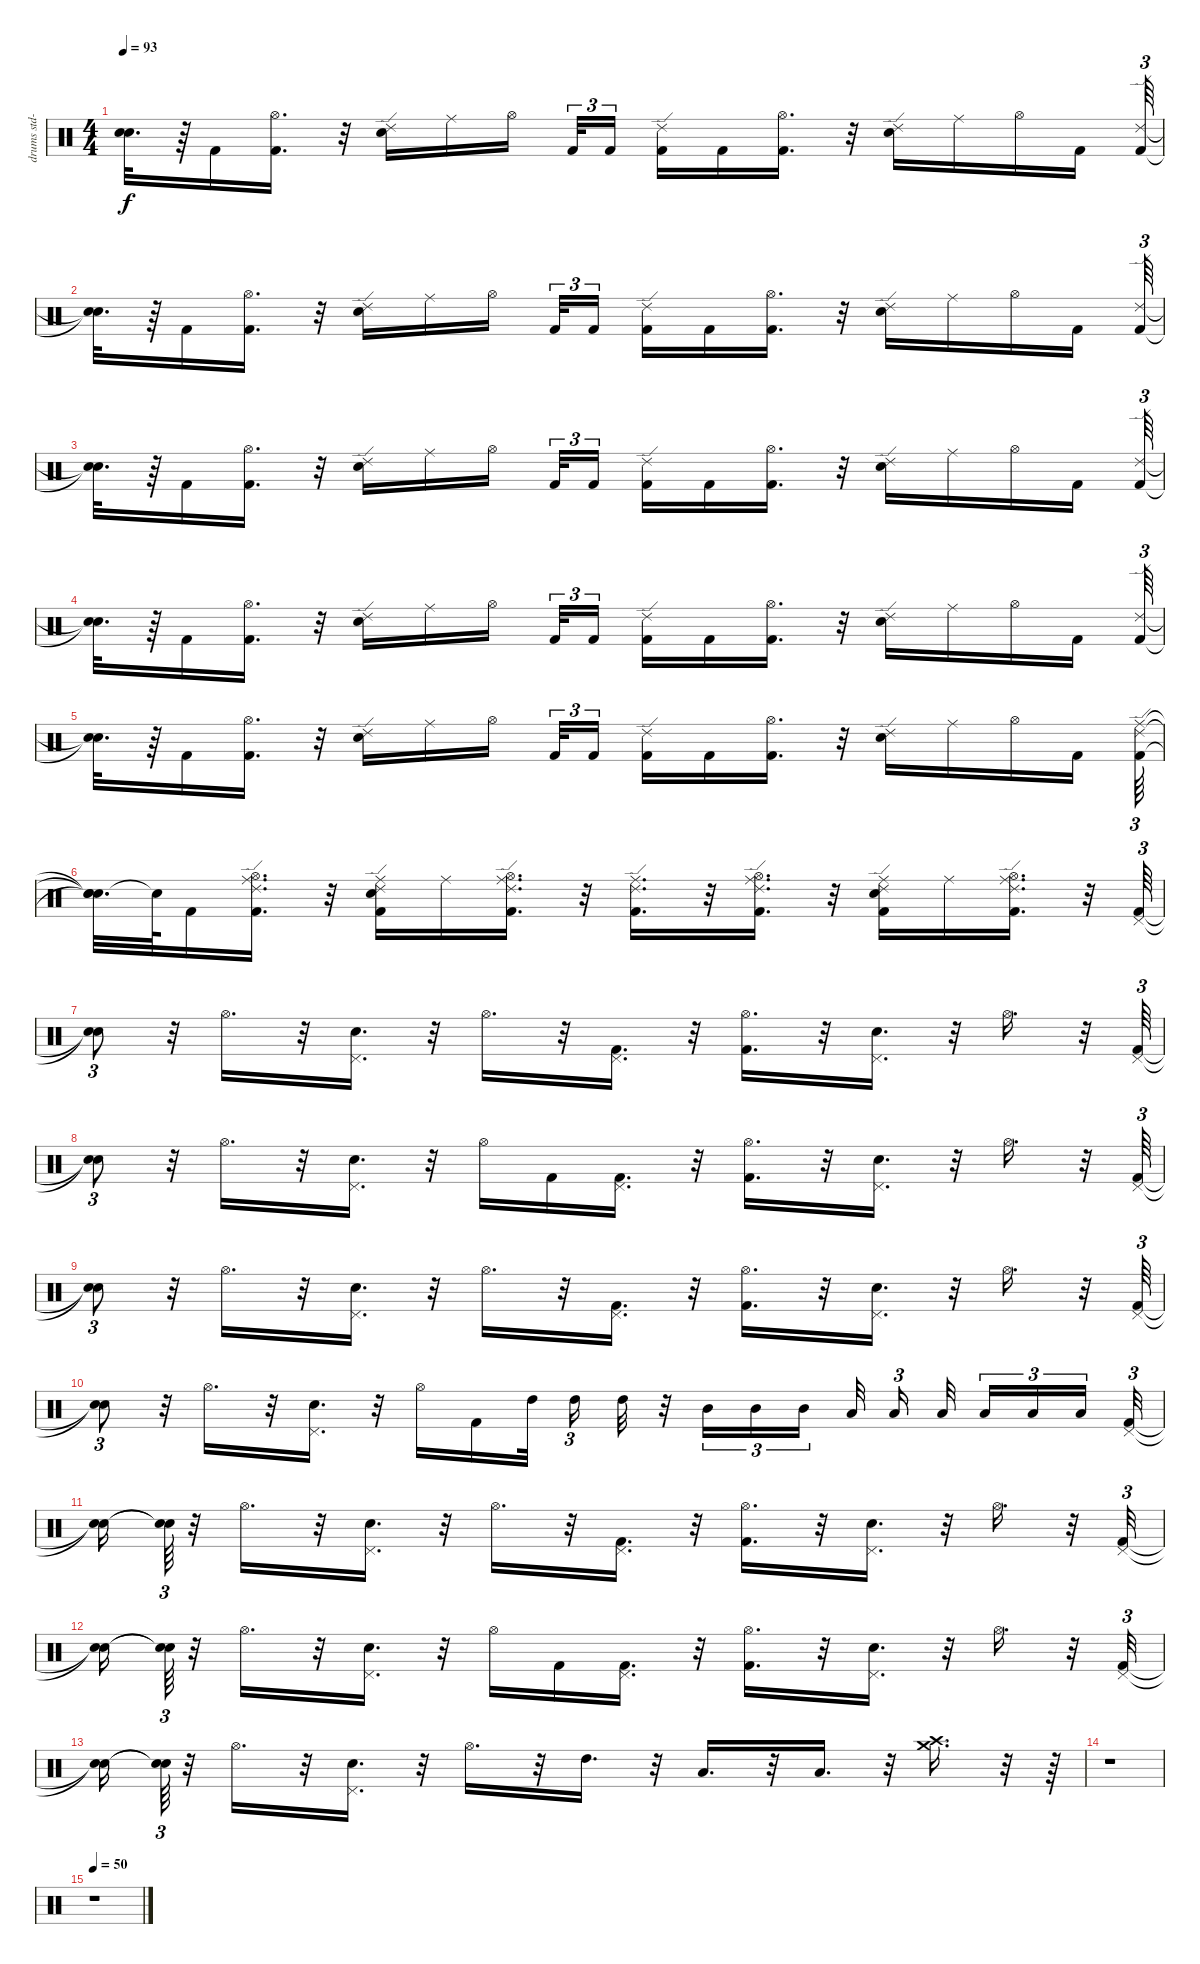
\track ("drums std-0" "drums std-") {instrument percussion}
\staff {score}
\articulation defaults
\ts (4 4)
\tempo 93
\clef neutral
\ks c
("Snare (hit)"{t} "Snare (hit)"{t}).32{d dy f} r.64 "Kick (hit) 2".16 ("Kick (hit) 2" "Hi-Hat (open)").16{d} r.32 ("Ride (edge) 2" "Snare (hit) 2").16 "Ride (middle)".16 "Hi-Hat (open)".16 "Kick (hit) 2".32{tu (3 2)} "Kick (hit) 2".16{tu (3 2)} ("Ride (edge) 2" "Kick (hit) 2").16 "Kick (hit) 2".16 ("Hi-Hat (open)" "Kick (hit) 2").16{d} r.32 ("Ride (edge) 2" "Snare (hit) 2").16 "Ride (middle)".16 "Hi-Hat (open)".16 "Kick (hit) 2".16 ("Kick (hit) 2" "Ride (edge) 2").64{tu (3 2)} |
("Snare (hit)"{t} "Snare (hit)"{t}).32{d} r.64 "Kick (hit) 2".16 ("Kick (hit) 2" "Hi-Hat (open)").16{d} r.32 ("Ride (edge) 2" "Snare (hit) 2").16 "Ride (middle)".16 "Hi-Hat (open)".16 "Kick (hit) 2".32{tu (3 2)} "Kick (hit) 2".16{tu (3 2)} ("Ride (edge) 2" "Kick (hit) 2").16 "Kick (hit) 2".16 ("Hi-Hat (open)" "Kick (hit) 2").16{d} r.32 ("Ride (edge) 2" "Snare (hit) 2").16 "Ride (middle)".16 "Hi-Hat (open)".16 "Kick (hit) 2".16 ("Kick (hit) 2" "Ride (edge) 2").64{tu (3 2)} |
("Snare (hit)"{t} "Snare (hit)"{t}).32{d} r.64 "Kick (hit) 2".16 ("Kick (hit) 2" "Hi-Hat (open)").16{d} r.32 ("Ride (edge) 2" "Snare (hit) 2").16 "Ride (middle)".16 "Hi-Hat (open)".16 "Kick (hit) 2".32{tu (3 2)} "Kick (hit) 2".16{tu (3 2)} ("Ride (edge) 2" "Kick (hit) 2").16 "Kick (hit) 2".16 ("Hi-Hat (open)" "Kick (hit) 2").16{d} r.32 ("Ride (edge) 2" "Snare (hit) 2").16 "Ride (middle)".16 "Hi-Hat (open)".16 "Kick (hit) 2".16 ("Kick (hit) 2" "Ride (edge) 2").64{tu (3 2)} |
("Snare (hit)"{t} "Snare (hit)"{t}).32{d} r.64 "Kick (hit) 2".16 ("Kick (hit) 2" "Hi-Hat (open)").16{d} r.32 ("Ride (edge) 2" "Snare (hit) 2").16 "Ride (middle)".16 "Hi-Hat (open)".16 "Kick (hit) 2".32{tu (3 2)} "Kick (hit) 2".16{tu (3 2)} ("Ride (edge) 2" "Kick (hit) 2").16 "Kick (hit) 2".16 ("Hi-Hat (open)" "Kick (hit) 2").16{d} r.32 ("Ride (edge) 2" "Snare (hit) 2").16 "Ride (middle)".16 "Hi-Hat (open)".16 "Kick (hit) 2".16 ("Kick (hit) 2" "Ride (edge) 2").64{tu (3 2)} |
("Snare (hit)"{t} "Snare (hit)"{t}).32{d} r.64 "Kick (hit) 2".16 ("Kick (hit) 2" "Hi-Hat (open)").16{d} r.32 ("Ride (edge) 2" "Snare (hit) 2").16 "Ride (middle)".16 "Hi-Hat (open)".16 "Kick (hit) 2".32{tu (3 2)} "Kick (hit) 2".16{tu (3 2)} ("Ride (edge) 2" "Kick (hit) 2").16 "Kick (hit) 2".16 ("Hi-Hat (open)" "Kick (hit) 2").16{d} r.32 ("Ride (edge) 2" "Snare (hit) 2").16 "Ride (middle)".16 "Hi-Hat (open)".16 "Kick (hit) 2".16 ("Kick (hit) 2" "Ride (edge) 2" "Ride (middle)").64{tu (3 2)} |
("Snare (hit)"{t} "Snare (hit)"{t} "Snare (hit)"{t}).32{d} "Snare (hit)"{t}.64 "Kick (hit) 2".16 ("Ride (edge) 2" "Kick (hit) 2" "Hi-Hat (open)" "Ride (middle)").16{d} r.32 ("Ride (edge) 2" "Kick (hit) 2" "Ride (middle)" "Snare (hit) 2").16 "Ride (middle)".16 ("Ride (edge) 2" "Hi-Hat (open)" "Ride (middle)" "Kick (hit) 2").16{d} r.32 ("Ride (edge) 2" "Kick (hit) 2" "Ride (middle)").16{d} r.32 ("Ride (edge) 2" "Hi-Hat (open)" "Kick (hit) 2" "Ride (middle)").16{d} r.32 ("Ride (edge) 2" "Kick (hit) 2" "Ride (middle)" "Snare (hit) 2").16 "Ride (middle)".16 ("Ride (edge) 2" "Hi-Hat (open)" "Ride (middle)" "Kick (hit) 2").16{d} r.32 ("Pedal Hi-Hat (hit)" "Kick (hit) 2").64{tu (3 2)} |
("Snare (hit)"{t} "Snare (hit)"{t}).8{tu (3 2)} r.32 "Hi-Hat (open)".16{d} r.32 ("Pedal Hi-Hat (hit)" "Snare (hit) 2").16{d} r.32 "Hi-Hat (open)".16{d} r.32 ("Pedal Hi-Hat (hit)" "Kick (hit) 2").16{d} r.32 ("Hi-Hat (open)" "Kick (hit) 2").16{d} r.32 ("Pedal Hi-Hat (hit)" "Snare (hit) 2").16{d} r.32 "Hi-Hat (open)".16{d} r.32 ("Pedal Hi-Hat (hit)" "Kick (hit) 2").64{tu (3 2)} |
("Snare (hit)"{t} "Snare (hit)"{t}).8{tu (3 2)} r.32 "Hi-Hat (open)".16{d} r.32 ("Pedal Hi-Hat (hit)" "Snare (hit) 2").16{d} r.32 "Hi-Hat (open)".16 "Kick (hit) 2".16 ("Pedal Hi-Hat (hit)" "Kick (hit) 2").16{d} r.32 ("Hi-Hat (open)" "Kick (hit) 2").16{d} r.32 ("Pedal Hi-Hat (hit)" "Snare (hit) 2").16{d} r.32 "Hi-Hat (open)".16{d} r.32 ("Pedal Hi-Hat (hit)" "Kick (hit) 2").64{tu (3 2)} |
("Snare (hit)"{t} "Snare (hit)"{t}).8{tu (3 2)} r.32 "Hi-Hat (open)".16{d} r.32 ("Pedal Hi-Hat (hit)" "Snare (hit) 2").16{d} r.32 "Hi-Hat (open)".16{d} r.32 ("Pedal Hi-Hat (hit)" "Kick (hit) 2").16{d} r.32 ("Hi-Hat (open)" "Kick (hit) 2").16{d} r.32 ("Pedal Hi-Hat (hit)" "Snare (hit) 2").16{d} r.32 "Hi-Hat (open)".16{d} r.32 ("Pedal Hi-Hat (hit)" "Kick (hit) 2").64{tu (3 2)} |
("Snare (hit)"{t} "Snare (hit)"{t}).8{tu (3 2)} r.32 "Hi-Hat (open)".16{d} r.32 ("Pedal Hi-Hat (hit)" "Snare (hit) 2").16{d} r.32 "Hi-Hat (open)".16 "Kick (hit) 2".16 "High Tom (hit)".32 "High Tom (hit)".16{tu (3 2)} "High Tom (hit)".32 r.32 "Mid Tom (hit)".16{tu (3 2)} "Mid Tom (hit)".16{tu (3 2)} "Mid Tom (hit)".16{tu (3 2)} "Low Tom (hit)".32 "Low Tom (hit)".16{tu (3 2)} "Low Tom (hit)".32 "Low Floor Tom (hit)".16{tu (3 2)} "Low Floor Tom (hit)".16{tu (3 2)} "Low Floor Tom (hit)".16{tu (3 2)} ("Pedal Hi-Hat (hit)" "Kick (hit) 2").32{tu (3 2)} |
("Snare (hit)"{t} "Snare (hit)"{t}).16 ("Snare (hit)"{t} "Snare (hit)"{t}).64{tu (3 2)} r.32 "Hi-Hat (open)".16{d} r.32 ("Pedal Hi-Hat (hit)" "Snare (hit) 2").16{d} r.32 "Hi-Hat (open)".16{d} r.32 ("Pedal Hi-Hat (hit)" "Kick (hit) 2").16{d} r.32 ("Hi-Hat (open)" "Kick (hit) 2").16{d} r.32 ("Pedal Hi-Hat (hit)" "Snare (hit) 2").16{d} r.32 "Hi-Hat (open)".16{d} r.32 ("Pedal Hi-Hat (hit)" "Kick (hit) 2").32{tu (3 2)} |
("Snare (hit)"{t} "Snare (hit)"{t}).16 ("Snare (hit)"{t} "Snare (hit)"{t}).64{tu (3 2)} r.32 "Hi-Hat (open)".16{d} r.32 ("Pedal Hi-Hat (hit)" "Snare (hit) 2").16{d} r.32 "Hi-Hat (open)".16 "Kick (hit) 2".16 ("Pedal Hi-Hat (hit)" "Kick (hit) 2").16{d} r.32 ("Hi-Hat (open)" "Kick (hit) 2").16{d} r.32 ("Pedal Hi-Hat (hit)" "Snare (hit) 2").16{d} r.32 "Hi-Hat (open)".16{d} r.32 ("Pedal Hi-Hat (hit)" "Kick (hit) 2").32{tu (3 2)} |
("Snare (hit)"{t} "Snare (hit)"{t}).16 ("Snare (hit)"{t} "Snare (hit)"{t}).64{tu (3 2)} r.32 "Hi-Hat (open)".16{d} r.32 ("Pedal Hi-Hat (hit)" "Snare (hit) 2").16{d} r.32 "Hi-Hat (open)".16{d} r.32 "High Tom (hit)".16{d} r.32 "Low Tom (hit)".16{d} r.32 "Low Floor Tom (hit)".16{d} r.32 ("Crash high (hit)" "Crash medium (hit)").16{d} r.32 r.64 |
r.1 |
\tempo 50
r.1
